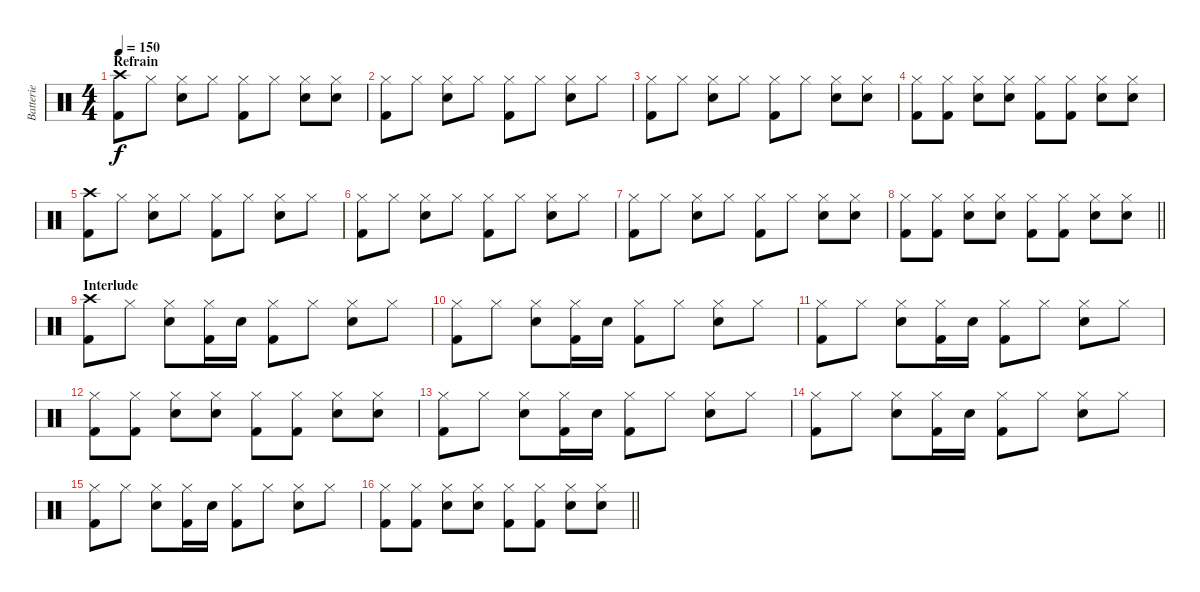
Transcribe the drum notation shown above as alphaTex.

\track ("Batterie" "Batterie") {instrument percussion}
\staff {score}
\articulation defaults
\ts (4 4)
\section ("" "Refrain")
\tempo 150
\clef neutral
\ks c
("Crash high (hit)" "Kick (hit) 2").8{dy f} "Hi-Hat (closed)".8 ("Hi-Hat (closed)" "Electric Snare (hit)").8 "Hi-Hat (closed)".8 ("Hi-Hat (closed)" "Kick (hit) 2").8 "Hi-Hat (closed)".8 ("Hi-Hat (closed)" "Electric Snare (hit)").8 ("Hi-Hat (closed)" "Electric Snare (hit)").8 |
("Hi-Hat (closed)" "Kick (hit) 2").8 "Hi-Hat (closed)".8 ("Hi-Hat (closed)" "Electric Snare (hit)").8 "Hi-Hat (closed)".8 ("Hi-Hat (closed)" "Kick (hit) 2").8 "Hi-Hat (closed)".8 ("Hi-Hat (closed)" "Electric Snare (hit)").8 "Hi-Hat (closed)".8 |
("Hi-Hat (closed)" "Kick (hit) 2").8 "Hi-Hat (closed)".8 ("Hi-Hat (closed)" "Electric Snare (hit)").8 "Hi-Hat (closed)".8 ("Hi-Hat (closed)" "Kick (hit) 2").8 "Hi-Hat (closed)".8 ("Hi-Hat (closed)" "Electric Snare (hit)").8 ("Hi-Hat (closed)" "Electric Snare (hit)").8 |
("Hi-Hat (closed)" "Kick (hit) 2").8 ("Hi-Hat (closed)" "Kick (hit) 2").8 ("Hi-Hat (closed)" "Electric Snare (hit)").8 ("Hi-Hat (closed)" "Electric Snare (hit)").8 ("Hi-Hat (closed)" "Kick (hit) 2").8 ("Hi-Hat (closed)" "Kick (hit) 2").8 ("Hi-Hat (closed)" "Electric Snare (hit)").8 ("Hi-Hat (closed)" "Electric Snare (hit)").8 |
("Crash high (hit)" "Kick (hit) 2").8 "Hi-Hat (closed)".8 ("Hi-Hat (closed)" "Electric Snare (hit)").8 "Hi-Hat (closed)".8 ("Hi-Hat (closed)" "Kick (hit) 2").8 "Hi-Hat (closed)".8 ("Hi-Hat (closed)" "Electric Snare (hit)").8 "Hi-Hat (closed)".8 |
("Hi-Hat (closed)" "Kick (hit) 2").8 "Hi-Hat (closed)".8 ("Hi-Hat (closed)" "Electric Snare (hit)").8 "Hi-Hat (closed)".8 ("Hi-Hat (closed)" "Kick (hit) 2").8 "Hi-Hat (closed)".8 ("Hi-Hat (closed)" "Electric Snare (hit)").8 "Hi-Hat (closed)".8 |
("Hi-Hat (closed)" "Kick (hit) 2").8 "Hi-Hat (closed)".8 ("Hi-Hat (closed)" "Electric Snare (hit)").8 "Hi-Hat (closed)".8 ("Hi-Hat (closed)" "Kick (hit) 2").8 "Hi-Hat (closed)".8 ("Hi-Hat (closed)" "Electric Snare (hit)").8 ("Hi-Hat (closed)" "Electric Snare (hit)").8 |
\barLineRight lightlight
("Hi-Hat (closed)" "Kick (hit) 2").8 ("Hi-Hat (closed)" "Kick (hit) 2").8 ("Hi-Hat (closed)" "Electric Snare (hit)").8 ("Hi-Hat (closed)" "Electric Snare (hit)").8 ("Hi-Hat (closed)" "Kick (hit) 2").8 ("Hi-Hat (closed)" "Kick (hit) 2").8 ("Hi-Hat (closed)" "Electric Snare (hit)").8 ("Hi-Hat (closed)" "Electric Snare (hit)").8 |
\section ("" "Interlude")
("Crash high (hit)" "Kick (hit) 2").8 "Hi-Hat (closed)".8 ("Hi-Hat (closed)" "Electric Snare (hit)").8 ("Hi-Hat (closed)" "Kick (hit) 2").16 "Electric Snare (hit)".16 ("Hi-Hat (closed)" "Kick (hit) 2").8 "Hi-Hat (closed)".8 ("Hi-Hat (closed)" "Electric Snare (hit)").8 "Hi-Hat (closed)".8 |
("Hi-Hat (closed)" "Kick (hit) 2").8 "Hi-Hat (closed)".8 ("Hi-Hat (closed)" "Electric Snare (hit)").8 ("Hi-Hat (closed)" "Kick (hit) 2").16 "Electric Snare (hit)".16 ("Hi-Hat (closed)" "Kick (hit) 2").8 "Hi-Hat (closed)".8 ("Hi-Hat (closed)" "Electric Snare (hit)").8 "Hi-Hat (closed)".8 |
("Hi-Hat (closed)" "Kick (hit) 2").8 "Hi-Hat (closed)".8 ("Hi-Hat (closed)" "Electric Snare (hit)").8 ("Hi-Hat (closed)" "Kick (hit) 2").16 "Electric Snare (hit)".16 ("Hi-Hat (closed)" "Kick (hit) 2").8 "Hi-Hat (closed)".8 ("Hi-Hat (closed)" "Electric Snare (hit)").8 "Hi-Hat (closed)".8 |
("Hi-Hat (closed)" "Kick (hit) 2").8 ("Hi-Hat (closed)" "Kick (hit) 2").8 ("Hi-Hat (closed)" "Electric Snare (hit)").8 ("Hi-Hat (closed)" "Electric Snare (hit)").8 ("Hi-Hat (closed)" "Kick (hit) 2").8 ("Hi-Hat (closed)" "Kick (hit) 2").8 ("Hi-Hat (closed)" "Electric Snare (hit)").8 ("Hi-Hat (closed)" "Electric Snare (hit)").8 |
("Hi-Hat (closed)" "Kick (hit) 2").8 "Hi-Hat (closed)".8 ("Hi-Hat (closed)" "Electric Snare (hit)").8 ("Hi-Hat (closed)" "Kick (hit) 2").16 "Electric Snare (hit)".16 ("Hi-Hat (closed)" "Kick (hit) 2").8 "Hi-Hat (closed)".8 ("Hi-Hat (closed)" "Electric Snare (hit)").8 "Hi-Hat (closed)".8 |
("Hi-Hat (closed)" "Kick (hit) 2").8 "Hi-Hat (closed)".8 ("Hi-Hat (closed)" "Electric Snare (hit)").8 ("Hi-Hat (closed)" "Kick (hit) 2").16 "Electric Snare (hit)".16 ("Hi-Hat (closed)" "Kick (hit) 2").8 "Hi-Hat (closed)".8 ("Hi-Hat (closed)" "Electric Snare (hit)").8 "Hi-Hat (closed)".8 |
("Hi-Hat (closed)" "Kick (hit) 2").8 "Hi-Hat (closed)".8 ("Hi-Hat (closed)" "Electric Snare (hit)").8 ("Hi-Hat (closed)" "Kick (hit) 2").16 "Electric Snare (hit)".16 ("Hi-Hat (closed)" "Kick (hit) 2").8 "Hi-Hat (closed)".8 ("Hi-Hat (closed)" "Electric Snare (hit)").8 "Hi-Hat (closed)".8 |
\barLineRight lightlight
("Hi-Hat (closed)" "Kick (hit) 2").8 ("Hi-Hat (closed)" "Kick (hit) 2").8 ("Hi-Hat (closed)" "Electric Snare (hit)").8 ("Hi-Hat (closed)" "Electric Snare (hit)").8 ("Hi-Hat (closed)" "Kick (hit) 2").8 ("Hi-Hat (closed)" "Kick (hit) 2").8 ("Hi-Hat (closed)" "Electric Snare (hit)").8 ("Hi-Hat (closed)" "Electric Snare (hit)").8
